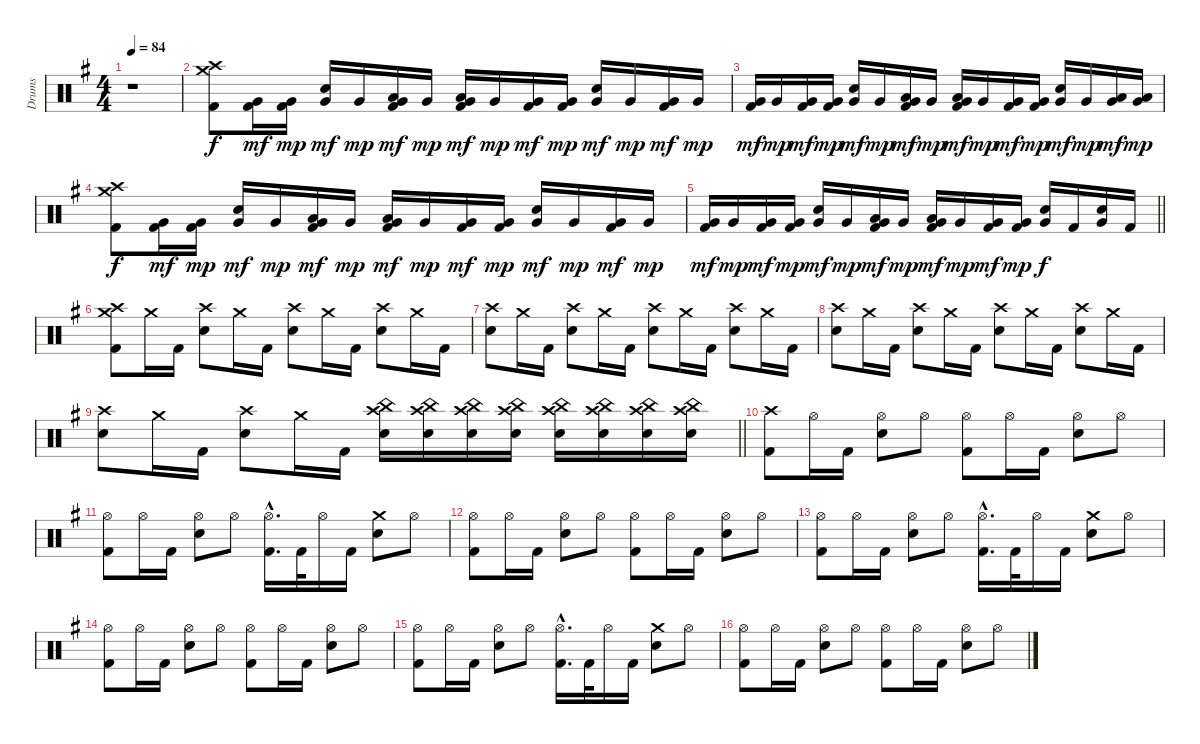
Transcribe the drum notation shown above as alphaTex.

\track ("Drums" "Drums") {instrument percussion}
\staff {score}
\articulation defaults
\ts (4 4)
\tempo 84
\clef neutral
\ks eminor
r.1{dy f} |
("Crash high (hit)" "Crash medium (hit)" "Kick (hit) 2").8 ("Very Low Tom (hit)" "Kick (hit) 2").16{dy mf} ("Very Low Tom (hit)" "Kick (hit) 2").16{dy mp} ("Snare (hit) 2" "Very Low Tom (hit)").16{dy mf} "Very Low Tom (hit)".16{dy mp} ("Low Tom (hit)" "Very Low Tom (hit)" "Kick (hit) 2").16{dy mf} "Very Low Tom (hit)".16{dy mp} ("Low Tom (hit)" "Very Low Tom (hit)" "Kick (hit) 2").16{dy mf} "Very Low Tom (hit)".16{dy mp} ("Very Low Tom (hit)" "Kick (hit) 2").16{dy mf} ("Very Low Tom (hit)" "Kick (hit) 2").16{dy mp} ("Snare (hit) 2" "Very Low Tom (hit)").16{dy mf} "Very Low Tom (hit)".16{dy mp} ("Very Low Tom (hit)" "Kick (hit) 2").16{dy mf} "Very Low Tom (hit)".16{dy mp} |
("Very Low Tom (hit)" "Kick (hit) 2").16{dy mf} "Very Low Tom (hit)".16{dy mp} ("Very Low Tom (hit)" "Kick (hit) 2").16{dy mf} ("Very Low Tom (hit)" "Kick (hit) 2").16{dy mp} ("Snare (hit) 2" "Very Low Tom (hit)").16{dy mf} "Very Low Tom (hit)".16{dy mp} ("Low Tom (hit)" "Very Low Tom (hit)" "Kick (hit) 2").16{dy mf} "Very Low Tom (hit)".16{dy mp} ("Low Tom (hit)" "Very Low Tom (hit)" "Kick (hit) 2").16{dy mf} "Very Low Tom (hit)".16{dy mp} ("Very Low Tom (hit)" "Kick (hit) 2").16{dy mf} ("Very Low Tom (hit)" "Kick (hit) 2").16{dy mp} ("Snare (hit) 2" "Very Low Tom (hit)").16{dy mf} "Very Low Tom (hit)".16{dy mp} ("Low Tom (hit)" "Very Low Tom (hit)").16{dy mf} ("Low Tom (hit)" "Very Low Tom (hit)").16{dy mp} |
("Crash high (hit)" "Crash medium (hit)" "Kick (hit) 2").8{dy f} ("Very Low Tom (hit)" "Kick (hit) 2").16{dy mf} ("Very Low Tom (hit)" "Kick (hit) 2").16{dy mp} ("Snare (hit) 2" "Very Low Tom (hit)").16{dy mf} "Very Low Tom (hit)".16{dy mp} ("Low Tom (hit)" "Very Low Tom (hit)" "Kick (hit) 2").16{dy mf} "Very Low Tom (hit)".16{dy mp} ("Low Tom (hit)" "Very Low Tom (hit)" "Kick (hit) 2").16{dy mf} "Very Low Tom (hit)".16{dy mp} ("Very Low Tom (hit)" "Kick (hit) 2").16{dy mf} ("Very Low Tom (hit)" "Kick (hit) 2").16{dy mp} ("Snare (hit) 2" "Very Low Tom (hit)").16{dy mf} "Very Low Tom (hit)".16{dy mp} ("Very Low Tom (hit)" "Kick (hit) 2").16{dy mf} "Very Low Tom (hit)".16{dy mp} |
\barLineRight lightlight
("Very Low Tom (hit)" "Kick (hit) 2").16{dy mf} "Very Low Tom (hit)".16{dy mp} ("Very Low Tom (hit)" "Kick (hit) 2").16{dy mf} ("Very Low Tom (hit)" "Kick (hit) 2").16{dy mp} ("Snare (hit) 2" "Very Low Tom (hit)").16{dy mf} "Very Low Tom (hit)".16{dy mp} ("Low Tom (hit)" "Very Low Tom (hit)" "Kick (hit) 2").16{dy mf} "Very Low Tom (hit)".16{dy mp} ("Low Tom (hit)" "Very Low Tom (hit)" "Kick (hit) 2").16{dy mf} "Very Low Tom (hit)".16{dy mp} ("Very Low Tom (hit)" "Kick (hit) 2").16{dy mf} ("Very Low Tom (hit)" "Kick (hit) 2").16{dy mp} ("Snare (hit) 2" "Very Low Tom (hit)").16{dy f} "Kick (hit) 2".16 ("Snare (hit) 2" "Very Low Tom (hit)").16 "Kick (hit) 2".16 |
("Crash high (hit)" "Crash medium (hit)" "Kick (hit) 2").8 "Crash medium (hit)".16 "Kick (hit) 2".16 ("Crash high (hit)" "Snare (hit) 2").8 "Crash medium (hit)".16 "Kick (hit) 2".16 ("Crash high (hit)" "Snare (hit) 2").8 "Crash medium (hit)".16 "Kick (hit) 2".16 ("Crash high (hit)" "Snare (hit) 2").8 "Crash medium (hit)".16 "Kick (hit) 2".16 |
("Crash high (hit)" "Snare (hit) 2").8 "Crash medium (hit)".16 "Kick (hit) 2".16 ("Crash high (hit)" "Snare (hit) 2").8 "Crash medium (hit)".16 "Kick (hit) 2".16 ("Crash high (hit)" "Snare (hit) 2").8 "Crash medium (hit)".16 "Kick (hit) 2".16 ("Crash high (hit)" "Snare (hit) 2").8 "Crash medium (hit)".16 "Kick (hit) 2".16 |
("Crash high (hit)" "Snare (hit) 2").8 "Crash medium (hit)".16 "Kick (hit) 2".16 ("Crash high (hit)" "Snare (hit) 2").8 "Crash medium (hit)".16 "Kick (hit) 2".16 ("Crash high (hit)" "Snare (hit) 2").8 "Crash medium (hit)".16 "Kick (hit) 2".16 ("Crash high (hit)" "Snare (hit) 2").8 "Crash medium (hit)".16 "Kick (hit) 2".16 |
\barLineRight lightlight
("Crash high (hit)" "Snare (hit) 2").8 "Crash medium (hit)".16 "Kick (hit) 2".16 ("Crash high (hit)" "Snare (hit) 2").8 "Crash medium (hit)".16 "Kick (hit) 2".16 ("China (hit)" "Crash high (hit)" "Snare (hit) 2").16 ("China (hit)" "Crash high (hit)" "Snare (hit) 2").16 ("China (hit)" "Crash high (hit)" "Snare (hit) 2").16 ("China (hit)" "Crash high (hit)" "Snare (hit) 2").16 ("China (hit)" "Crash high (hit)" "Snare (hit) 2").16 ("China (hit)" "Crash high (hit)" "Snare (hit) 2").16 ("China (hit)" "Crash high (hit)" "Snare (hit) 2").16 ("China (hit)" "Crash high (hit)" "Snare (hit) 2").16 |
("Crash high (hit)" "Kick (hit) 2").8 "Hi-Hat (open)".16 "Kick (hit) 2".16 ("Hi-Hat (open)" "Snare (hit) 2").8 "Hi-Hat (open)".8 ("Hi-Hat (open)" "Kick (hit) 2").8 "Hi-Hat (open)".16 "Kick (hit) 2".16 ("Hi-Hat (open)" "Snare (hit) 2").8 "Hi-Hat (open)".8 |
("Hi-Hat (open)" "Kick (hit) 2").8 "Hi-Hat (open)".16 "Kick (hit) 2".16 ("Hi-Hat (open)" "Snare (hit) 2").8 "Hi-Hat (open)".8 ("Hi-Hat (open)"{hac} "Kick (hit) 2"{hac}).16{d} "Kick (hit) 2".32 "Hi-Hat (open)".16 "Kick (hit) 2".16 ("Crash medium (hit)" "Snare (hit) 2").8 "Hi-Hat (open)".8 |
("Hi-Hat (open)" "Kick (hit) 2").8 "Hi-Hat (open)".16 "Kick (hit) 2".16 ("Hi-Hat (open)" "Snare (hit) 2").8 "Hi-Hat (open)".8 ("Hi-Hat (open)" "Kick (hit) 2").8 "Hi-Hat (open)".16 "Kick (hit) 2".16 ("Hi-Hat (open)" "Snare (hit) 2").8 "Hi-Hat (open)".8 |
("Hi-Hat (open)" "Kick (hit) 2").8 "Hi-Hat (open)".16 "Kick (hit) 2".16 ("Hi-Hat (open)" "Snare (hit) 2").8 "Hi-Hat (open)".8 ("Hi-Hat (open)"{hac} "Kick (hit) 2"{hac}).16{d} "Kick (hit) 2".32 "Hi-Hat (open)".16 "Kick (hit) 2".16 ("Crash medium (hit)" "Snare (hit) 2").8 "Hi-Hat (open)".8 |
("Hi-Hat (open)" "Kick (hit) 2").8 "Hi-Hat (open)".16 "Kick (hit) 2".16 ("Hi-Hat (open)" "Snare (hit) 2").8 "Hi-Hat (open)".8 ("Hi-Hat (open)" "Kick (hit) 2").8 "Hi-Hat (open)".16 "Kick (hit) 2".16 ("Hi-Hat (open)" "Snare (hit) 2").8 "Hi-Hat (open)".8 |
("Hi-Hat (open)" "Kick (hit) 2").8 "Hi-Hat (open)".16 "Kick (hit) 2".16 ("Hi-Hat (open)" "Snare (hit) 2").8 "Hi-Hat (open)".8 ("Hi-Hat (open)"{hac} "Kick (hit) 2"{hac}).16{d} "Kick (hit) 2".32 "Hi-Hat (open)".16 "Kick (hit) 2".16 ("Crash medium (hit)" "Snare (hit) 2").8 "Hi-Hat (open)".8 |
("Hi-Hat (open)" "Kick (hit) 2").8 "Hi-Hat (open)".16 "Kick (hit) 2".16 ("Hi-Hat (open)" "Snare (hit) 2").8 "Hi-Hat (open)".8 ("Hi-Hat (open)" "Kick (hit) 2").8 "Hi-Hat (open)".16 "Kick (hit) 2".16 ("Hi-Hat (open)" "Snare (hit) 2").8 "Hi-Hat (open)".8
